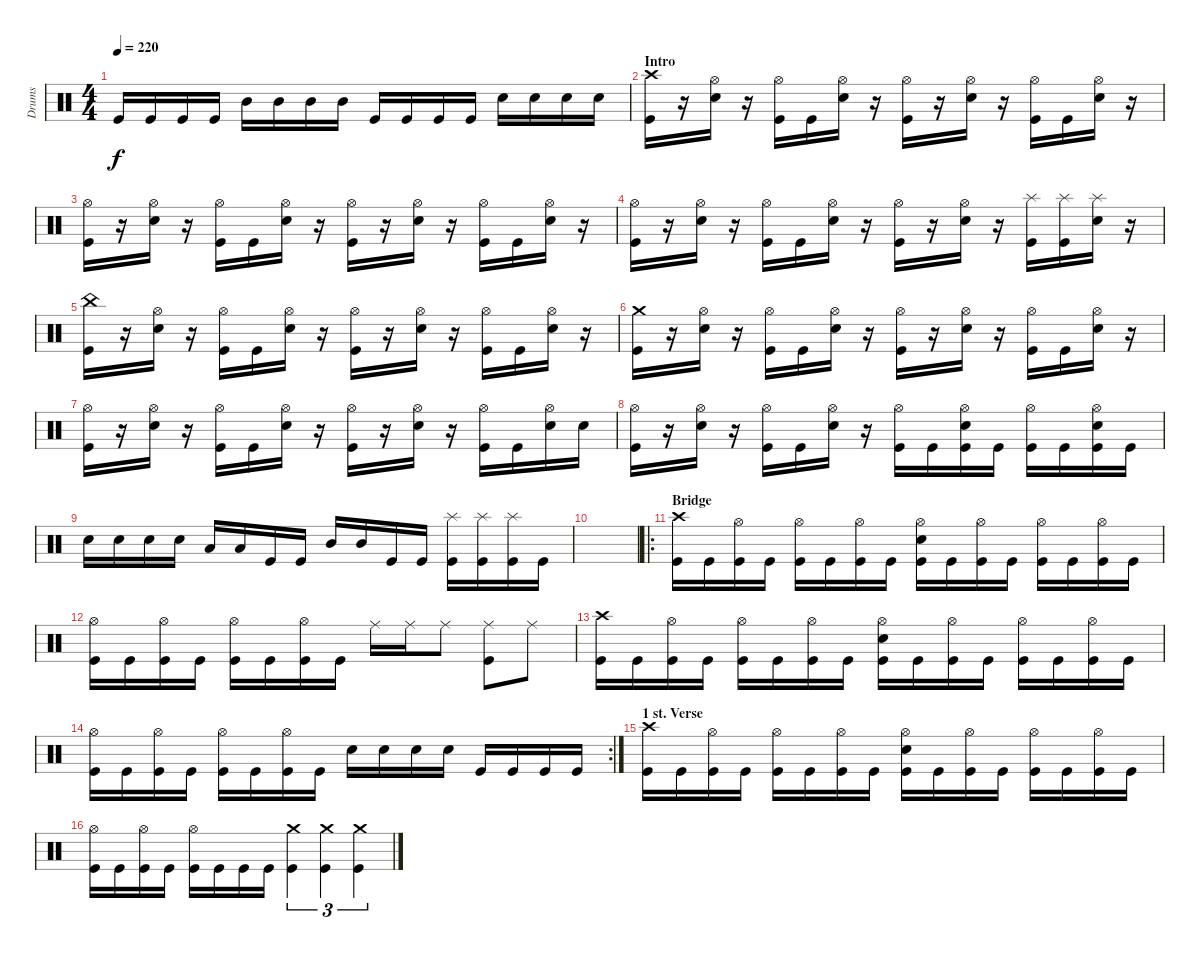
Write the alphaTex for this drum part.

\track ("Drums" "Drums") {instrument percussion}
\staff {score}
\articulation defaults
\ts (4 4)
\tempo 220
\clef neutral
\ks c "Kick (hit)".16{dy f} "Kick (hit)".16 "Kick (hit)".16 "Kick (hit)".16 "Mid Tom (hit)".16 "Mid Tom (hit)".16 "Mid Tom (hit)".16 "Mid Tom (hit)".16 "Kick (hit)".16 "Kick (hit)".16 "Kick (hit)".16 "Kick (hit)".16 "Snare (hit) 2".16 "Snare (hit) 2".16 "Snare (hit) 2".16 "Snare (hit) 2".16
|
\section ("" "Intro")
("Crash high (hit)" "Kick (hit)").16 r.16 ("Hi-Hat (open)" "Snare (hit) 2").16 r.16 ("Hi-Hat (open)" "Kick (hit)").16 "Kick (hit)".16 ("Hi-Hat (open)" "Snare (hit) 2").16 r.16 ("Hi-Hat (open)" "Kick (hit)").16 r.16 ("Hi-Hat (open)" "Snare (hit) 2").16 r.16 ("Hi-Hat (open)" "Kick (hit)").16 "Kick (hit)".16 ("Hi-Hat (open)" "Snare (hit) 2").16 r.16 |
("Hi-Hat (open)" "Kick (hit)").16 r.16 ("Hi-Hat (open)" "Snare (hit) 2").16 r.16 ("Hi-Hat (open)" "Kick (hit)").16 "Kick (hit)".16 ("Hi-Hat (open)" "Snare (hit) 2").16 r.16 ("Hi-Hat (open)" "Kick (hit)").16 r.16 ("Hi-Hat (open)" "Snare (hit) 2").16 r.16 ("Hi-Hat (open)" "Kick (hit)").16 "Kick (hit)".16 ("Hi-Hat (open)" "Snare (hit) 2").16 r.16 |
("Hi-Hat (open)" "Kick (hit)").16 r.16 ("Hi-Hat (open)" "Snare (hit) 2").16 r.16 ("Hi-Hat (open)" "Kick (hit)").16 "Kick (hit)".16 ("Hi-Hat (open)" "Snare (hit) 2").16 r.16 ("Hi-Hat (open)" "Kick (hit)").16 r.16 ("Hi-Hat (open)" "Snare (hit) 2").16 r.16 ("Splash (hit)" "Kick (hit)").16 ("Splash (hit)" "Kick (hit)").16 ("Splash (hit)" "Snare (hit) 2").16 r.16 |
("China (hit)" "Kick (hit)").16 r.16 ("Hi-Hat (open)" "Snare (hit) 2").16 r.16 ("Hi-Hat (open)" "Kick (hit)").16 "Kick (hit)".16 ("Hi-Hat (open)" "Snare (hit) 2").16 r.16 ("Hi-Hat (open)" "Kick (hit)").16 r.16 ("Hi-Hat (open)" "Snare (hit) 2").16 r.16 ("Hi-Hat (open)" "Kick (hit)").16 "Kick (hit)".16 ("Hi-Hat (open)" "Snare (hit) 2").16 r.16 |
("Crash medium (hit)" "Kick (hit)").16 r.16 ("Hi-Hat (open)" "Snare (hit) 2").16 r.16 ("Hi-Hat (open)" "Kick (hit)").16 "Kick (hit)".16 ("Hi-Hat (open)" "Snare (hit) 2").16 r.16 ("Hi-Hat (open)" "Kick (hit)").16 r.16 ("Hi-Hat (open)" "Snare (hit) 2").16 r.16 ("Hi-Hat (open)" "Kick (hit)").16 "Kick (hit)".16 ("Hi-Hat (open)" "Snare (hit) 2").16 r.16 |
("Hi-Hat (open)" "Kick (hit)").16 r.16 ("Hi-Hat (open)" "Snare (hit) 2").16 r.16 ("Hi-Hat (open)" "Kick (hit)").16 "Kick (hit)".16 ("Hi-Hat (open)" "Snare (hit) 2").16 r.16 ("Hi-Hat (open)" "Kick (hit)").16 r.16 ("Hi-Hat (open)" "Snare (hit) 2").16 r.16 ("Hi-Hat (open)" "Kick (hit)").16 "Kick (hit)".16 ("Hi-Hat (open)" "Snare (hit) 2").16 "Snare (hit) 2".16 |
("Hi-Hat (open)" "Kick (hit)").16 r.16 ("Hi-Hat (open)" "Snare (hit) 2").16 r.16 ("Hi-Hat (open)" "Kick (hit)").16 "Kick (hit)".16 ("Hi-Hat (open)" "Snare (hit) 2").16 r.16 ("Hi-Hat (open)" "Kick (hit)").16 "Kick (hit)".16 ("Hi-Hat (open)" "Snare (hit) 2" "Kick (hit)").16 "Kick (hit)".16 ("Hi-Hat (open)" "Kick (hit)").16 "Kick (hit)".16 ("Hi-Hat (open)" "Snare (hit) 2" "Kick (hit)").16 "Kick (hit)".16 |
"Snare (hit) 2".16 "Snare (hit) 2".16 "Snare (hit) 2".16 "Snare (hit) 2".16 "Low Tom (hit)".16 "Low Tom (hit)".16 "Kick (hit)".16 "Kick (hit)".16 "Mid Tom (hit)".16 "Mid Tom (hit)".16 "Kick (hit)".16 "Kick (hit)".16 ("Splash (hit)" "Kick (hit)").16 ("Splash (hit)" "Kick (hit)").16 ("Splash (hit)" "Kick (hit)").16 "Kick (hit)".16 |
|
\ro
\section ("" "Bridge")
("Crash high (hit)" "Kick (hit)").16 "Kick (hit)".16 ("Hi-Hat (open)" "Kick (hit)").16 "Kick (hit)".16 ("Hi-Hat (open)" "Kick (hit)").16 "Kick (hit)".16 ("Hi-Hat (open)" "Kick (hit)").16 "Kick (hit)".16 ("Hi-Hat (open)" "Snare (hit) 2" "Kick (hit)").16 "Kick (hit)".16 ("Hi-Hat (open)" "Kick (hit)").16 "Kick (hit)".16 ("Hi-Hat (open)" "Kick (hit)").16 "Kick (hit)".16 ("Hi-Hat (open)" "Kick (hit)").16 "Kick (hit)".16 |
("Hi-Hat (open)" "Kick (hit)").16 "Kick (hit)".16 ("Hi-Hat (open)" "Kick (hit)").16 "Kick (hit)".16 ("Hi-Hat (open)" "Kick (hit)").16 "Kick (hit)".16 ("Hi-Hat (open)" "Kick (hit)").16 "Kick (hit)".16 "Ride (middle)".16 "Ride (middle)".16 "Ride (middle)".8 ("Ride (middle)" "Kick (hit)").8 "Ride (middle)".8 |
("Crash high (hit)" "Kick (hit)").16 "Kick (hit)".16 ("Hi-Hat (open)" "Kick (hit)").16 "Kick (hit)".16 ("Hi-Hat (open)" "Kick (hit)").16 "Kick (hit)".16 ("Hi-Hat (open)" "Kick (hit)").16 "Kick (hit)".16 ("Hi-Hat (open)" "Snare (hit) 2" "Kick (hit)").16 "Kick (hit)".16 ("Hi-Hat (open)" "Kick (hit)").16 "Kick (hit)".16 ("Hi-Hat (open)" "Kick (hit)").16 "Kick (hit)".16 ("Hi-Hat (open)" "Kick (hit)").16 "Kick (hit)".16 |
\rc 2
("Hi-Hat (open)" "Kick (hit)").16 "Kick (hit)".16 ("Hi-Hat (open)" "Kick (hit)").16 "Kick (hit)".16 ("Hi-Hat (open)" "Kick (hit)").16 "Kick (hit)".16 ("Hi-Hat (open)" "Kick (hit)").16 "Kick (hit)".16 "Snare (hit) 2".16 "Snare (hit) 2".16 "Snare (hit) 2".16 "Snare (hit) 2".16 "Kick (hit)".16 "Kick (hit)".16 "Kick (hit)".16 "Kick (hit)".16 |
\section ("" "1 st. Verse")
("Crash high (hit)" "Kick (hit)").16 "Kick (hit)".16 ("Hi-Hat (open)" "Kick (hit)").16 "Kick (hit)".16 ("Hi-Hat (open)" "Kick (hit)").16 "Kick (hit)".16 ("Hi-Hat (open)" "Kick (hit)").16 "Kick (hit)".16 ("Hi-Hat (open)" "Snare (hit) 2" "Kick (hit)").16 "Kick (hit)".16 ("Hi-Hat (open)" "Kick (hit)").16 "Kick (hit)".16 ("Hi-Hat (open)" "Kick (hit)").16 "Kick (hit)".16 ("Hi-Hat (open)" "Kick (hit)").16 "Kick (hit)".16 |
("Hi-Hat (open)" "Kick (hit)").16 "Kick (hit)".16 ("Hi-Hat (open)" "Kick (hit)").16 "Kick (hit)".16 ("Hi-Hat (open)" "Kick (hit)").16 "Kick (hit)".16 "Kick (hit)".16 "Kick (hit)".16 ("Crash medium (hit)" "Kick (hit)").4{tu (3 2)} ("Crash medium (hit)" "Kick (hit)").4{tu (3 2)} ("Crash medium (hit)" "Kick (hit)").4{tu (3 2)}
